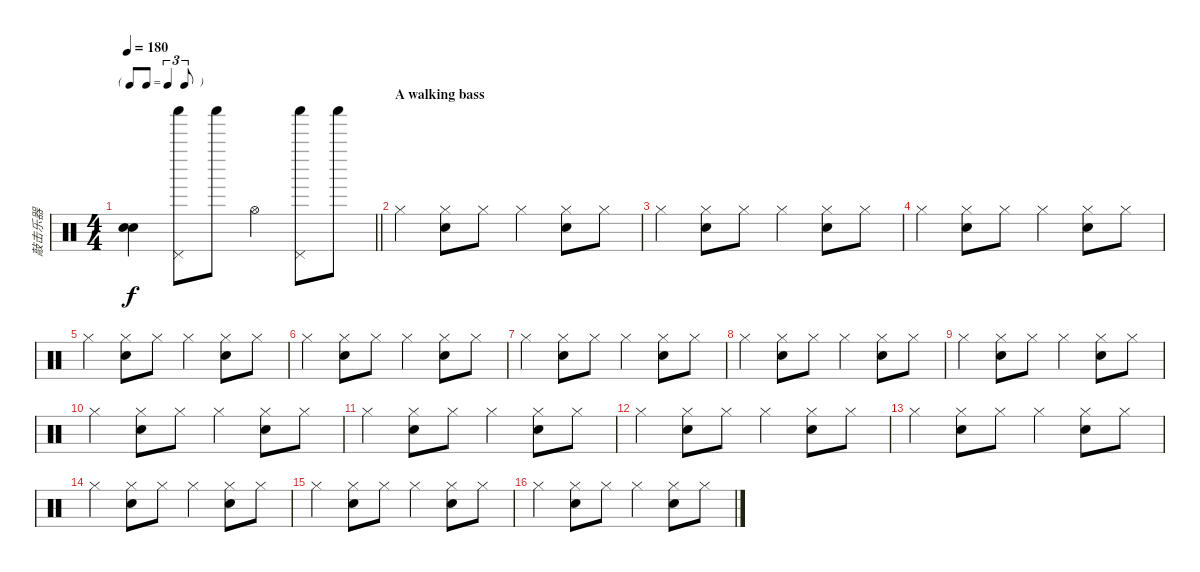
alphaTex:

\track ("敲击乐器" "敲击乐器") {instrument percussion}
\staff {score}
\articulation defaults
\ts (4 4)
\tf triplet8th
\tempo 180
\clef neutral
\barLineRight lightlight
\ks c
("Snare (hit)"{t} "Snare (hit)"{t}).4{dy f} ("Shaker (hit)" "Pedal Hi-Hat (hit)").8 "Shaker (hit)".8 "Hi-Hat (open)".4 ("Shaker (hit)" "Pedal Hi-Hat (hit)").8 "Shaker (hit)".8 |
\section ("" "A walking bass")
"Hi-Hat (closed)".4 ("Hi-Hat (closed)" "Hand Clap (hit)").8 "Hi-Hat (closed)".8 "Hi-Hat (closed)".4 ("Hi-Hat (closed)" "Hand Clap (hit)").8 "Hi-Hat (closed)".8 |
"Hi-Hat (closed)".4 ("Hi-Hat (closed)" "Hand Clap (hit)").8 "Hi-Hat (closed)".8 "Hi-Hat (closed)".4 ("Hi-Hat (closed)" "Hand Clap (hit)").8 "Hi-Hat (closed)".8 |
"Hi-Hat (closed)".4 ("Hi-Hat (closed)" "Hand Clap (hit)").8 "Hi-Hat (closed)".8 "Hi-Hat (closed)".4 ("Hi-Hat (closed)" "Hand Clap (hit)").8 "Hi-Hat (closed)".8 |
"Hi-Hat (closed)".4 ("Hi-Hat (closed)" "Hand Clap (hit)").8 "Hi-Hat (closed)".8 "Hi-Hat (closed)".4 ("Hi-Hat (closed)" "Hand Clap (hit)").8 "Hi-Hat (closed)".8 |
"Hi-Hat (closed)".4 ("Hi-Hat (closed)" "Hand Clap (hit)").8 "Hi-Hat (closed)".8 "Hi-Hat (closed)".4 ("Hi-Hat (closed)" "Hand Clap (hit)").8 "Hi-Hat (closed)".8 |
"Hi-Hat (closed)".4 ("Hi-Hat (closed)" "Hand Clap (hit)").8 "Hi-Hat (closed)".8 "Hi-Hat (closed)".4 ("Hi-Hat (closed)" "Hand Clap (hit)").8 "Hi-Hat (closed)".8 |
"Hi-Hat (closed)".4 ("Hi-Hat (closed)" "Hand Clap (hit)").8 "Hi-Hat (closed)".8 "Hi-Hat (closed)".4 ("Hi-Hat (closed)" "Hand Clap (hit)").8 "Hi-Hat (closed)".8 |
"Hi-Hat (closed)".4 ("Hi-Hat (closed)" "Hand Clap (hit)").8 "Hi-Hat (closed)".8 "Hi-Hat (closed)".4 ("Hi-Hat (closed)" "Hand Clap (hit)").8 "Hi-Hat (closed)".8 |
"Hi-Hat (closed)".4 ("Hi-Hat (closed)" "Hand Clap (hit)").8 "Hi-Hat (closed)".8 "Hi-Hat (closed)".4 ("Hi-Hat (closed)" "Hand Clap (hit)").8 "Hi-Hat (closed)".8 |
"Hi-Hat (closed)".4 ("Hi-Hat (closed)" "Hand Clap (hit)").8 "Hi-Hat (closed)".8 "Hi-Hat (closed)".4 ("Hi-Hat (closed)" "Hand Clap (hit)").8 "Hi-Hat (closed)".8 |
"Hi-Hat (closed)".4 ("Hi-Hat (closed)" "Hand Clap (hit)").8 "Hi-Hat (closed)".8 "Hi-Hat (closed)".4 ("Hi-Hat (closed)" "Hand Clap (hit)").8 "Hi-Hat (closed)".8 |
"Hi-Hat (closed)".4 ("Hi-Hat (closed)" "Hand Clap (hit)").8 "Hi-Hat (closed)".8 "Hi-Hat (closed)".4 ("Hi-Hat (closed)" "Hand Clap (hit)").8 "Hi-Hat (closed)".8 |
"Hi-Hat (closed)".4 ("Hi-Hat (closed)" "Hand Clap (hit)").8 "Hi-Hat (closed)".8 "Hi-Hat (closed)".4 ("Hi-Hat (closed)" "Hand Clap (hit)").8 "Hi-Hat (closed)".8 |
"Hi-Hat (closed)".4 ("Hi-Hat (closed)" "Hand Clap (hit)").8 "Hi-Hat (closed)".8 "Hi-Hat (closed)".4 ("Hi-Hat (closed)" "Hand Clap (hit)").8 "Hi-Hat (closed)".8 |
"Hi-Hat (closed)".4 ("Hi-Hat (closed)" "Hand Clap (hit)").8 "Hi-Hat (closed)".8 "Hi-Hat (closed)".4 ("Hi-Hat (closed)" "Hand Clap (hit)").8 "Hi-Hat (closed)".8
